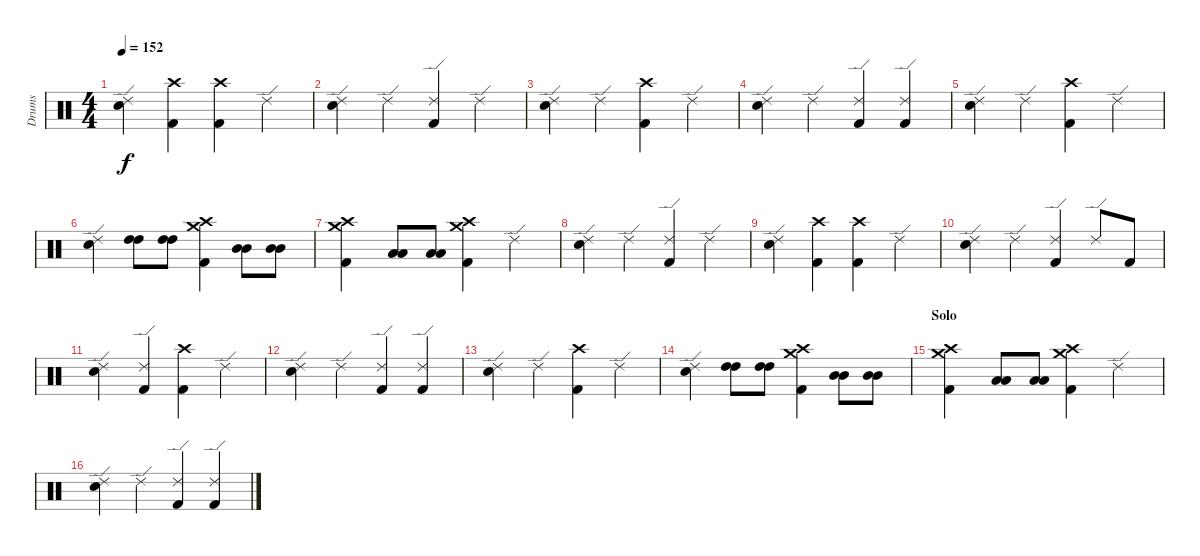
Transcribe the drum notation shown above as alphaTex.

\track ("Drums" "Drums") {instrument percussion}
\staff {score}
\articulation defaults
\ts (4 4)
\tempo 152
\clef neutral
\ks c
("Electric Snare (hit)" "Ride (edge) 2").4{dy f} ("Kick (hit) 2" "Crash high (hit)").4 ("Kick (hit) 2" "Crash high (hit)").4 "Ride (edge) 2".4 |
("Electric Snare (hit)" "Ride (edge) 2").4 "Ride (edge) 2".4 ("Kick (hit) 2" "Ride (edge) 2").4 "Ride (edge) 2".4 |
("Electric Snare (hit)" "Ride (edge) 2").4 "Ride (edge) 2".4 ("Kick (hit) 2" "Crash high (hit)").4 "Ride (edge) 2".4 |
("Electric Snare (hit)" "Ride (edge) 2").4 "Ride (edge) 2".4 ("Kick (hit) 2" "Ride (edge) 2").4 ("Kick (hit) 2" "Ride (edge) 2").4 |
("Electric Snare (hit)" "Ride (edge) 2").4 "Ride (edge) 2".4 ("Kick (hit) 2" "Crash high (hit)").4 "Ride (edge) 2".4 |
("Electric Snare (hit)" "Ride (edge) 2").4 ("High Tom (hit)" "High Tom (hit)").8 ("High Tom (hit)" "High Tom (hit)").8 ("Kick (hit) 2" "Crash high (hit)" "Crash medium (hit)").4 ("Mid Tom (hit)" "Mid Tom (hit)").8 ("Mid Tom (hit)" "Mid Tom (hit)").8 |
("Kick (hit) 2" "Crash high (hit)" "Crash medium (hit)").4 ("Low Tom (hit)" "Low Tom (hit)").8 ("Low Tom (hit)" "Low Tom (hit)").8 ("Kick (hit) 2" "Crash high (hit)" "Crash medium (hit)").4 "Ride (edge) 2".4 |
("Electric Snare (hit)" "Ride (edge) 2").4 "Ride (edge) 2".4 ("Kick (hit) 2" "Ride (edge) 2").4 "Ride (edge) 2".4 |
("Electric Snare (hit)" "Ride (edge) 2").4 ("Kick (hit) 2" "Crash high (hit)").4 ("Kick (hit) 2" "Crash high (hit)").4 "Ride (edge) 2".4 |
("Electric Snare (hit)" "Ride (edge) 2").4 "Ride (edge) 2".4 ("Kick (hit) 2" "Ride (edge) 2").4 "Ride (edge) 2".8 "Kick (hit) 2".8 |
("Electric Snare (hit)" "Ride (edge) 2").4 ("Kick (hit) 2" "Ride (edge) 2").4 ("Kick (hit) 2" "Crash high (hit)").4 "Ride (edge) 2".4 |
("Electric Snare (hit)" "Ride (edge) 2").4 "Ride (edge) 2".4 ("Kick (hit) 2" "Ride (edge) 2").4 ("Kick (hit) 2" "Ride (edge) 2").4 |
("Electric Snare (hit)" "Ride (edge) 2").4 "Ride (edge) 2".4 ("Kick (hit) 2" "Crash high (hit)").4 "Ride (edge) 2".4 |
("Electric Snare (hit)" "Ride (edge) 2").4 ("High Tom (hit)" "High Tom (hit)").8 ("High Tom (hit)" "High Tom (hit)").8 ("Kick (hit) 2" "Crash high (hit)" "Crash medium (hit)").4 ("Mid Tom (hit)" "Mid Tom (hit)").8 ("Mid Tom (hit)" "Mid Tom (hit)").8 |
\section ("" "Solo")
("Kick (hit) 2" "Crash high (hit)" "Crash medium (hit)").4 ("Low Tom (hit)" "Low Tom (hit)").8 ("Low Tom (hit)" "Low Tom (hit)").8 ("Kick (hit) 2" "Crash high (hit)" "Crash medium (hit)").4 "Ride (edge) 2".4 |
("Electric Snare (hit)" "Ride (edge) 2").4 "Ride (edge) 2".4 ("Kick (hit) 2" "Ride (edge) 2").4 ("Kick (hit) 2" "Ride (edge) 2").4
